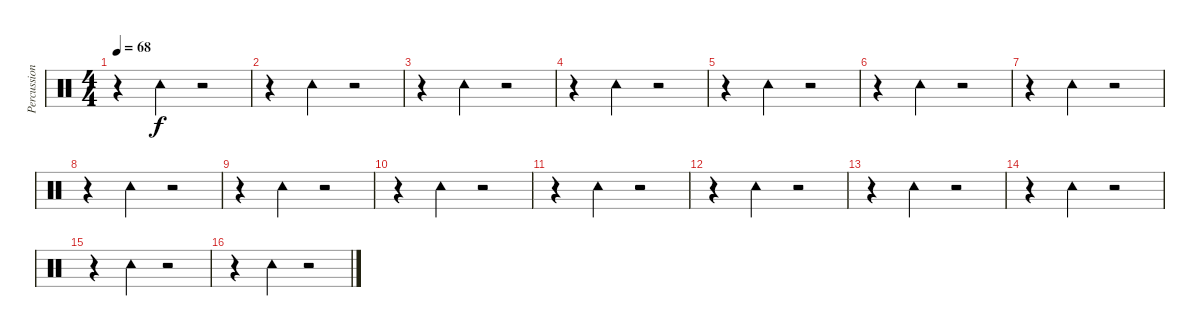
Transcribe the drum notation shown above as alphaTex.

\track ("Percussion" "Percussion") {instrument percussion}
\staff {score}
\articulation defaults
\ts (4 4)
\tempo 68
\clef neutral
\ks c
r.4{dy f} "Tambourine (hit)".4 r.2 |
r.4 "Tambourine (hit)".4 r.2 |
r.4 "Tambourine (hit)".4 r.2 |
r.4 "Tambourine (hit)".4 r.2 |
r.4 "Tambourine (hit)".4 r.2 |
r.4 "Tambourine (hit)".4 r.2 |
r.4 "Tambourine (hit)".4 r.2 |
r.4 "Tambourine (hit)".4 r.2 |
r.4 "Tambourine (hit)".4 r.2 |
r.4 "Tambourine (hit)".4 r.2 |
r.4 "Tambourine (hit)".4 r.2 |
r.4 "Tambourine (hit)".4 r.2 |
r.4 "Tambourine (hit)".4 r.2 |
r.4 "Tambourine (hit)".4 r.2 |
r.4 "Tambourine (hit)".4 r.2 |
r.4 "Tambourine (hit)".4 r.2
